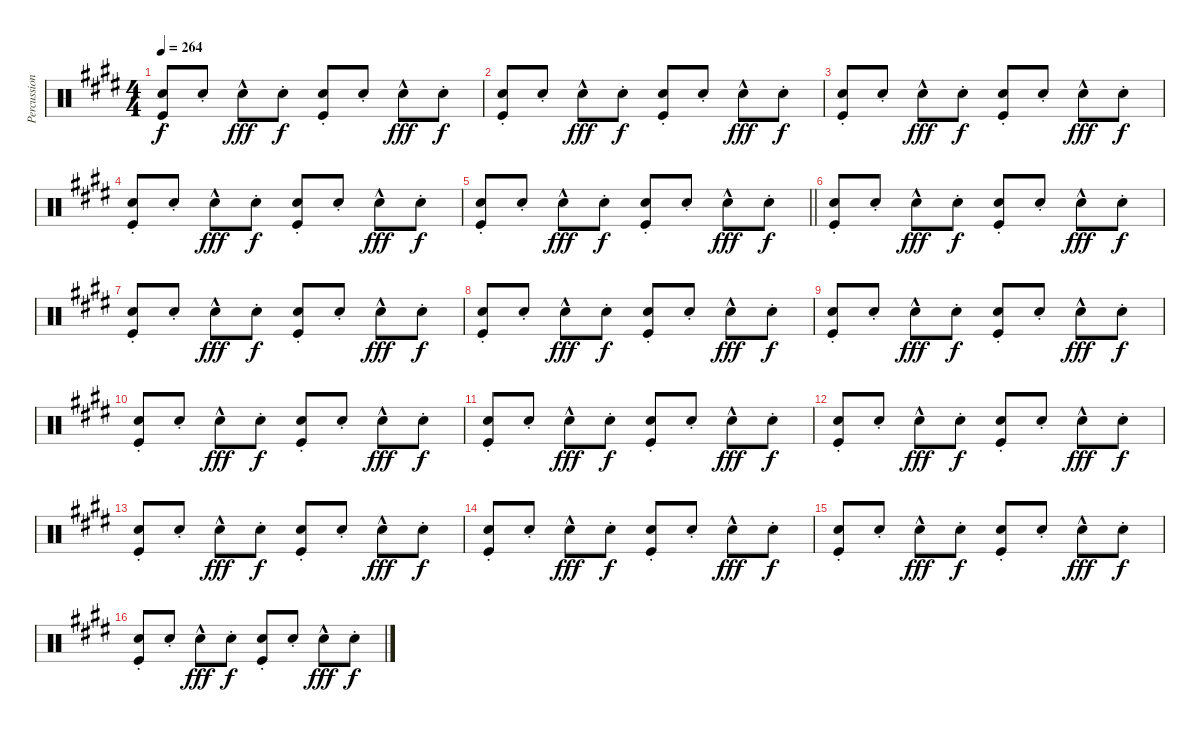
\track ("Percussion" "Percussion") {instrument percussion}
\staff {score}
\articulation defaults
\ts (4 4)
\tempo 264
\clef neutral
\ks e
("Snare (hit) 2"{st} "Kick (hit)").8{dy f} "Snare (hit) 2"{st}.8 "Snare (hit) 2"{hac}.8{dy fff} "Snare (hit) 2"{st}.8{dy f} ("Snare (hit) 2"{st} "Kick (hit)").8 "Snare (hit) 2"{st}.8 "Snare (hit) 2"{hac}.8{dy fff} "Snare (hit) 2"{st}.8{dy f} |
("Snare (hit) 2"{st} "Kick (hit)").8 "Snare (hit) 2"{st}.8 "Snare (hit) 2"{hac}.8{dy fff} "Snare (hit) 2"{st}.8{dy f} ("Snare (hit) 2"{st} "Kick (hit)").8 "Snare (hit) 2"{st}.8 "Snare (hit) 2"{hac}.8{dy fff} "Snare (hit) 2"{st}.8{dy f} |
("Snare (hit) 2"{st} "Kick (hit)").8 "Snare (hit) 2"{st}.8 "Snare (hit) 2"{hac}.8{dy fff} "Snare (hit) 2"{st}.8{dy f} ("Snare (hit) 2"{st} "Kick (hit)").8 "Snare (hit) 2"{st}.8 "Snare (hit) 2"{hac}.8{dy fff} "Snare (hit) 2"{st}.8{dy f} |
("Snare (hit) 2"{st} "Kick (hit)").8 "Snare (hit) 2"{st}.8 "Snare (hit) 2"{hac}.8{dy fff} "Snare (hit) 2"{st}.8{dy f} ("Snare (hit) 2"{st} "Kick (hit)").8 "Snare (hit) 2"{st}.8 "Snare (hit) 2"{hac}.8{dy fff} "Snare (hit) 2"{st}.8{dy f} |
\barLineRight lightlight
("Snare (hit) 2"{st} "Kick (hit)").8 "Snare (hit) 2"{st}.8 "Snare (hit) 2"{hac}.8{dy fff} "Snare (hit) 2"{st}.8{dy f} ("Snare (hit) 2"{st} "Kick (hit)").8 "Snare (hit) 2"{st}.8 "Snare (hit) 2"{hac}.8{dy fff} "Snare (hit) 2"{st}.8{dy f} |
("Snare (hit) 2"{st} "Kick (hit)").8 "Snare (hit) 2"{st}.8 "Snare (hit) 2"{hac}.8{dy fff} "Snare (hit) 2"{st}.8{dy f} ("Snare (hit) 2"{st} "Kick (hit)").8 "Snare (hit) 2"{st}.8 "Snare (hit) 2"{hac}.8{dy fff} "Snare (hit) 2"{st}.8{dy f} |
("Snare (hit) 2"{st} "Kick (hit)").8 "Snare (hit) 2"{st}.8 "Snare (hit) 2"{hac}.8{dy fff} "Snare (hit) 2"{st}.8{dy f} ("Snare (hit) 2"{st} "Kick (hit)").8 "Snare (hit) 2"{st}.8 "Snare (hit) 2"{hac}.8{dy fff} "Snare (hit) 2"{st}.8{dy f} |
("Snare (hit) 2"{st} "Kick (hit)").8 "Snare (hit) 2"{st}.8 "Snare (hit) 2"{hac}.8{dy fff} "Snare (hit) 2"{st}.8{dy f} ("Snare (hit) 2"{st} "Kick (hit)").8 "Snare (hit) 2"{st}.8 "Snare (hit) 2"{hac}.8{dy fff} "Snare (hit) 2"{st}.8{dy f} |
("Snare (hit) 2"{st} "Kick (hit)").8 "Snare (hit) 2"{st}.8 "Snare (hit) 2"{hac}.8{dy fff} "Snare (hit) 2"{st}.8{dy f} ("Snare (hit) 2"{st} "Kick (hit)").8 "Snare (hit) 2"{st}.8 "Snare (hit) 2"{hac}.8{dy fff} "Snare (hit) 2"{st}.8{dy f} |
("Snare (hit) 2"{st} "Kick (hit)").8 "Snare (hit) 2"{st}.8 "Snare (hit) 2"{hac}.8{dy fff} "Snare (hit) 2"{st}.8{dy f} ("Snare (hit) 2"{st} "Kick (hit)").8 "Snare (hit) 2"{st}.8 "Snare (hit) 2"{hac}.8{dy fff} "Snare (hit) 2"{st}.8{dy f} |
("Snare (hit) 2"{st} "Kick (hit)").8 "Snare (hit) 2"{st}.8 "Snare (hit) 2"{hac}.8{dy fff} "Snare (hit) 2"{st}.8{dy f} ("Snare (hit) 2"{st} "Kick (hit)").8 "Snare (hit) 2"{st}.8 "Snare (hit) 2"{hac}.8{dy fff} "Snare (hit) 2"{st}.8{dy f} |
("Snare (hit) 2"{st} "Kick (hit)").8 "Snare (hit) 2"{st}.8 "Snare (hit) 2"{hac}.8{dy fff} "Snare (hit) 2"{st}.8{dy f} ("Snare (hit) 2"{st} "Kick (hit)").8 "Snare (hit) 2"{st}.8 "Snare (hit) 2"{hac}.8{dy fff} "Snare (hit) 2"{st}.8{dy f} |
("Snare (hit) 2"{st} "Kick (hit)").8 "Snare (hit) 2"{st}.8 "Snare (hit) 2"{hac}.8{dy fff} "Snare (hit) 2"{st}.8{dy f} ("Snare (hit) 2"{st} "Kick (hit)").8 "Snare (hit) 2"{st}.8 "Snare (hit) 2"{hac}.8{dy fff} "Snare (hit) 2"{st}.8{dy f} |
("Snare (hit) 2"{st} "Kick (hit)").8 "Snare (hit) 2"{st}.8 "Snare (hit) 2"{hac}.8{dy fff} "Snare (hit) 2"{st}.8{dy f} ("Snare (hit) 2"{st} "Kick (hit)").8 "Snare (hit) 2"{st}.8 "Snare (hit) 2"{hac}.8{dy fff} "Snare (hit) 2"{st}.8{dy f} |
("Snare (hit) 2"{st} "Kick (hit)").8 "Snare (hit) 2"{st}.8 "Snare (hit) 2"{hac}.8{dy fff} "Snare (hit) 2"{st}.8{dy f} ("Snare (hit) 2"{st} "Kick (hit)").8 "Snare (hit) 2"{st}.8 "Snare (hit) 2"{hac}.8{dy fff} "Snare (hit) 2"{st}.8{dy f} |
("Snare (hit) 2"{st} "Kick (hit)").8 "Snare (hit) 2"{st}.8 "Snare (hit) 2"{hac}.8{dy fff} "Snare (hit) 2"{st}.8{dy f} ("Snare (hit) 2"{st} "Kick (hit)").8 "Snare (hit) 2"{st}.8 "Snare (hit) 2"{hac}.8{dy fff} "Snare (hit) 2"{st}.8{dy f}
